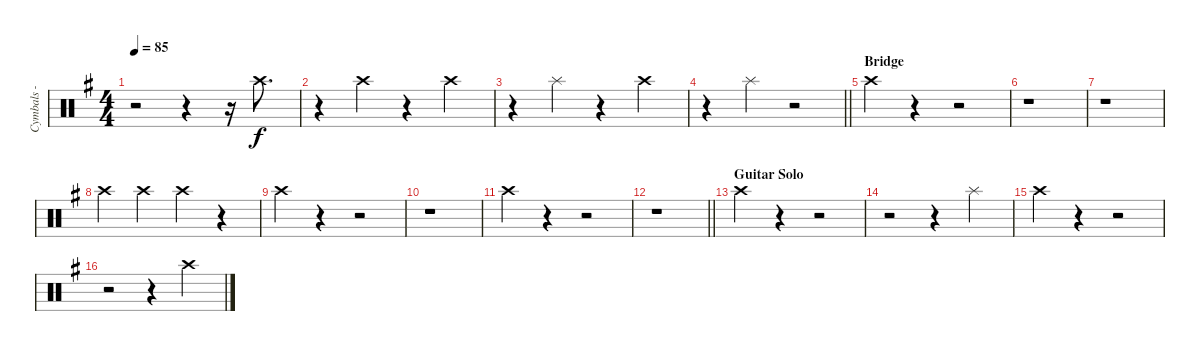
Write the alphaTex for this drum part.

\track ("Cymbals - crash" "Cymbals - ") {instrument percussion}
\staff {score}
\articulation defaults
\ts (4 4)
\tempo 85
\clef neutral
\ks g
r.2{dy f} r.4 r.16 "Crash high (hit)".8{d} |
r.4 "Crash high (hit)".4 r.4 "Crash high (hit)".4 |
r.4 "Splash (hit)".4 r.4 "Crash high (hit)".4 |
\barLineRight lightlight
r.4 "Splash (hit)".4 r.2 |
\section ("" "Bridge")
"Crash high (hit)".4 r.4 r.2 |
r.1 |
r.1 |
"Crash high (hit)".4 "Crash high (hit)".4 "Crash high (hit)".4 r.4 |
"Crash high (hit)".4 r.4 r.2 |
r.1 |
"Crash high (hit)".4 r.4 r.2 |
\barLineRight lightlight
r.1 |
\section ("" "Guitar Solo")
"Crash high (hit)".4 r.4 r.2 |
r.2 r.4 "Splash (hit)".4 |
"Crash high (hit)".4 r.4 r.2 |
r.2 r.4 "Crash high (hit)".4
